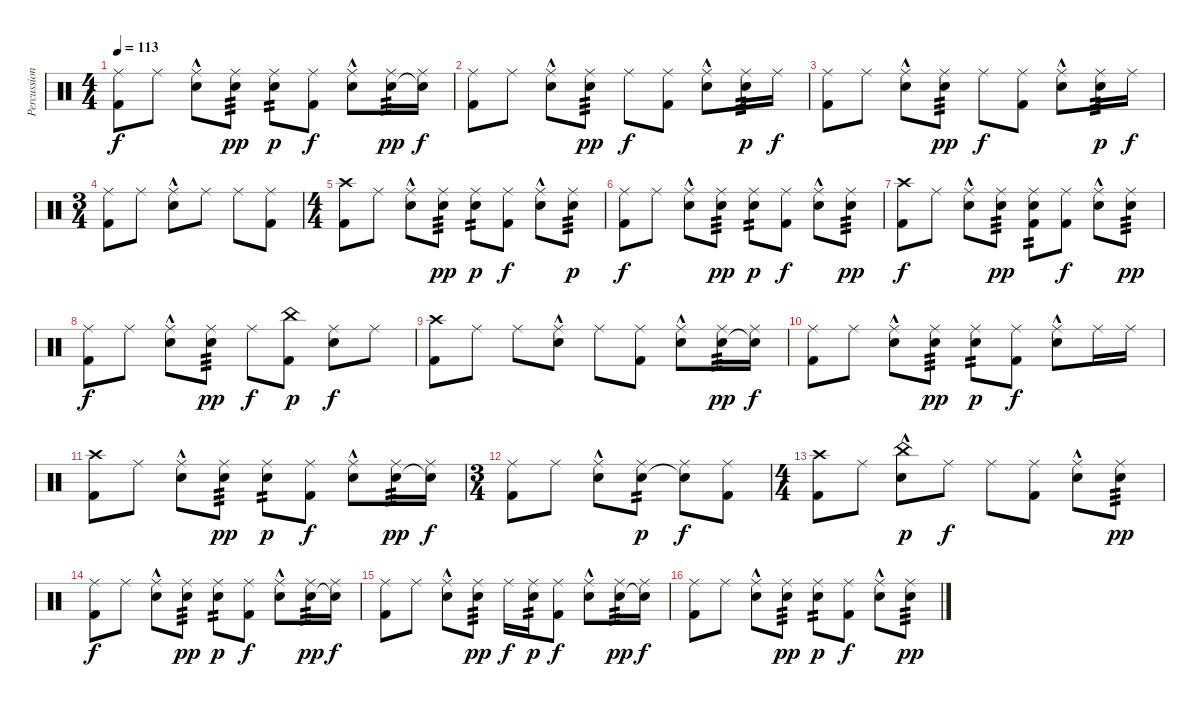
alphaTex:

\track ("Percussion" "Percussion") {instrument percussion}
\staff {score}
\articulation defaults
\ts (4 4)
\tempo 113
\clef neutral
\ks c
("Ride (middle)" "Kick (hit) 2").8{dy f} "Ride (middle)".8 ("Ride (middle)" "Snare (hit) 2"{hac}).8 ("Ride (middle)" "Snare (hit) 2").8{tp 3 dy pp} ("Ride (middle)" "Snare (hit) 2").8{tp 2 dy p} ("Ride (middle)" "Kick (hit) 2").8{dy f} ("Ride (middle)" "Snare (hit) 2"{hac}).8 ("Ride (middle)" "Snare (hit) 2").16{tp 3 dy pp} ("Ride (middle)" "Snare (hit) 2"{t}).16{dy f} |
("Ride (middle)" "Kick (hit) 2").8 "Ride (middle)".8 ("Ride (middle)" "Snare (hit) 2"{hac}).8 ("Ride (middle)" "Snare (hit) 2").8{tp 3 dy pp} "Ride (middle)".8{dy f} ("Ride (middle)" "Kick (hit) 2").8 ("Ride (middle)" "Snare (hit) 2"{hac}).8 ("Ride (middle)" "Snare (hit) 2").16{tp 3 dy p} "Ride (middle)".16{dy f} |
("Ride (middle)" "Kick (hit) 2").8 "Ride (middle)".8 ("Ride (middle)" "Snare (hit) 2"{hac}).8 ("Ride (middle)" "Snare (hit) 2").8{tp 3 dy pp} "Ride (middle)".8{dy f} ("Ride (middle)" "Kick (hit) 2").8 ("Ride (middle)" "Snare (hit) 2"{hac}).8 ("Ride (middle)" "Snare (hit) 2").16{tp 3 dy p} "Ride (middle)".16{dy f} |
\ts (3 4)
("Ride (middle)" "Kick (hit) 2").8 "Ride (middle)".8 ("Ride (middle)" "Snare (hit) 2"{hac}).8 "Ride (middle)".8 "Ride (middle)".8 ("Ride (middle)" "Kick (hit) 2").8 |
\ts (4 4)
("Crash high (hit)" "Kick (hit) 2").8 "Ride (middle)".8 ("Ride (middle)" "Snare (hit) 2"{hac}).8 ("Ride (middle)" "Snare (hit) 2").8{tp 3 dy pp} ("Ride (middle)" "Snare (hit) 2").8{tp 2 dy p} ("Ride (middle)" "Kick (hit) 2").8{dy f} ("Ride (middle)" "Snare (hit) 2"{hac}).8 ("Ride (middle)" "Snare (hit) 2").8{tp 3 dy p} |
("Ride (middle)" "Kick (hit) 2").8{dy f} "Ride (middle)".8 ("Ride (middle)" "Snare (hit) 2"{hac}).8 ("Ride (middle)" "Snare (hit) 2").8{tp 3 dy pp} ("Ride (middle)" "Snare (hit) 2").8{tp 2 dy p} ("Ride (middle)" "Kick (hit) 2").8{dy f} ("Ride (middle)" "Snare (hit) 2"{hac}).8 ("Ride (middle)" "Snare (hit) 2").8{tp 3 dy pp} |
("Crash high (hit)" "Kick (hit) 2").8{dy f} "Ride (middle)".8 ("Ride (middle)" "Snare (hit) 2"{hac}).8 ("Ride (middle)" "Snare (hit) 2").8{tp 3 dy pp} ("Ride (middle)" "Snare (hit) 2" "Kick (hit) 2").8{tp 2} ("Ride (middle)" "Kick (hit) 2").8{dy f} ("Ride (middle)" "Snare (hit) 2"{hac}).8 ("Ride (middle)" "Snare (hit) 2").8{tp 3 dy pp} |
("Ride (middle)" "Kick (hit) 2").8{dy f} "Ride (middle)".8 ("Ride (middle)" "Snare (hit) 2"{hac}).8 ("Ride (middle)" "Snare (hit) 2").8{tp 3 dy pp} "Ride (middle)".8{dy f} ("China (hit)" "Kick (hit) 2").8{dy p} ("Ride (middle)" "Snare (hit) 2").8{dy f} "Ride (middle)".8 |
("Crash high (hit)" "Kick (hit) 2").8 "Ride (middle)".8 "Ride (middle)".8 ("Ride (middle)" "Snare (hit) 2"{hac}).8 "Ride (middle)".8 ("Ride (middle)" "Kick (hit) 2").8 ("Ride (middle)" "Snare (hit) 2"{hac}).8 ("Ride (middle)" "Snare (hit) 2").16{tp 3 dy pp} ("Ride (middle)" "Snare (hit)"{t}).16{dy f} |
("Ride (middle)" "Kick (hit) 2").8 "Ride (middle)".8 ("Ride (middle)" "Snare (hit) 2"{hac}).8 ("Ride (middle)" "Snare (hit) 2").8{tp 3 dy pp} ("Ride (middle)" "Snare (hit) 2").8{tp 2 dy p} ("Ride (middle)" "Kick (hit) 2").8{dy f} ("Ride (middle)" "Snare (hit) 2"{hac}).8 "Ride (middle)".16 "Ride (middle)".16 |
("Crash high (hit)" "Kick (hit) 2").8 "Ride (middle)".8 ("Ride (middle)" "Snare (hit) 2"{hac}).8 ("Ride (middle)" "Snare (hit) 2").8{tp 3 dy pp} ("Ride (middle)" "Snare (hit) 2").8{tp 2 dy p} ("Ride (middle)" "Kick (hit) 2").8{dy f} ("Ride (middle)" "Snare (hit) 2"{hac}).8 ("Ride (middle)" "Snare (hit) 2").16{tp 3 dy pp} ("Ride (middle)" "Snare (hit)"{t}).16{dy f} |
\ts (3 4)
("Ride (middle)" "Kick (hit) 2").8 "Ride (middle)".8 ("Ride (middle)" "Snare (hit) 2"{hac}).8 ("Ride (middle)" "Snare (hit) 2").8{tp 2 dy p} ("Ride (middle)" "Snare (hit) 2"{t}).8{dy f} ("Ride (middle)" "Kick (hit) 2").8 |
\ts (4 4)
("Crash high (hit)" "Kick (hit) 2").8 "Ride (middle)".8 ("China (hit)" "Snare (hit) 2"{hac}).8{dy p} "Ride (middle)".8{dy f} "Ride (middle)".8 ("Ride (middle)" "Kick (hit) 2").8 ("Ride (middle)" "Snare (hit) 2"{hac}).8 ("Ride (middle)" "Snare (hit) 2").8{tp 3 dy pp} |
("Ride (middle)" "Kick (hit) 2").8{dy f} "Ride (middle)".8 ("Ride (middle)" "Snare (hit) 2"{hac}).8 ("Ride (middle)" "Snare (hit) 2").8{tp 3 dy pp} ("Ride (middle)" "Snare (hit) 2").8{tp 2 dy p} ("Ride (middle)" "Kick (hit) 2").8{dy f} ("Ride (middle)" "Snare (hit) 2"{hac}).8 ("Ride (middle)" "Snare (hit) 2").16{tp 3 dy pp} ("Ride (middle)" "Snare (hit)"{t}).16{dy f} |
("Ride (middle)" "Kick (hit) 2").8 "Ride (middle)".8 ("Ride (middle)" "Snare (hit) 2"{hac}).8 ("Ride (middle)" "Snare (hit) 2").8{tp 3 dy pp} "Ride (middle)".16{dy f} ("Ride (middle)" "Snare (hit) 2").16{tp 2 dy p} ("Ride (middle)" "Kick (hit) 2").8{dy f} ("Ride (middle)" "Snare (hit) 2"{hac}).8 ("Ride (middle)" "Snare (hit) 2").16{tp 3 dy pp} ("Ride (middle)" "Snare (hit)"{t}).16{dy f} |
("Ride (middle)" "Kick (hit) 2").8 "Ride (middle)".8 ("Ride (middle)" "Snare (hit) 2"{hac}).8 ("Ride (middle)" "Snare (hit) 2").8{tp 3 dy pp} ("Ride (middle)" "Snare (hit) 2").8{tp 2 dy p} ("Ride (middle)" "Kick (hit) 2").8{dy f} ("Ride (middle)" "Snare (hit) 2"{hac}).8 ("Ride (middle)" "Snare (hit) 2").8{tp 3 dy pp}
